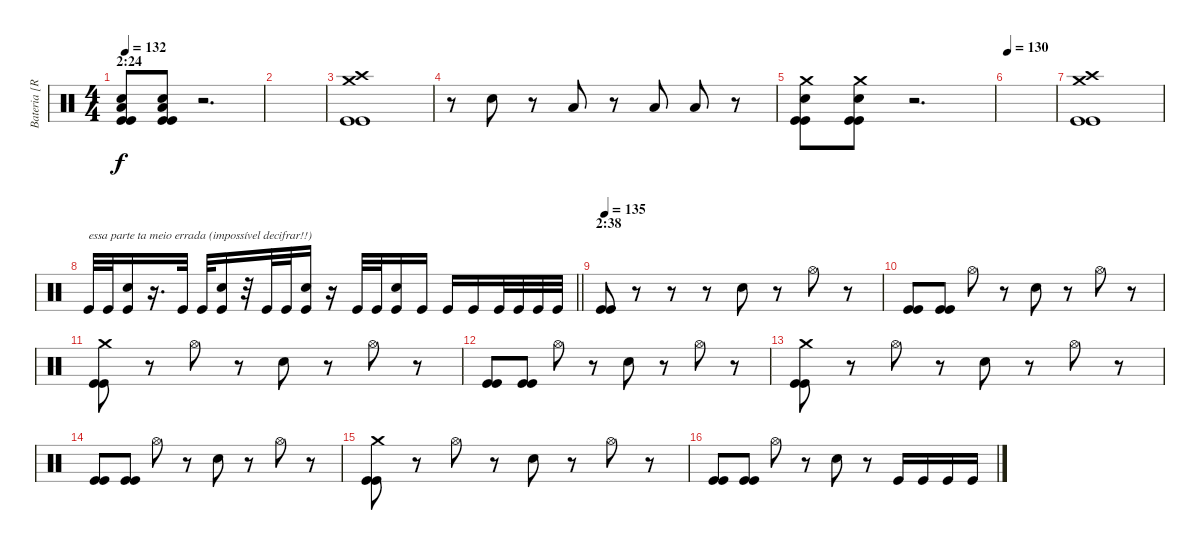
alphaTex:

\track ("Bateria [Ricardo Confessori]" "Bateria [R") {instrument percussion}
\staff {score}
\articulation defaults
\ts (4 4)
\section ("" "2:24")
\tempo 132
\clef neutral
\ks c
("Electric Snare (hit)" "Low Floor Tom (hit)" "Kick (hit)" "Kick (hit)").8{dy f} ("Electric Snare (hit)" "Low Floor Tom (hit)" "Kick (hit)" "Kick (hit)").8 r.2{d} |
|
("Crash medium (hit)" "Crash high (hit)" "Kick (hit)" "Kick (hit)").1 |
r.8 "Electric Snare (hit)".8 r.8 "Low Tom (hit)".8 r.8 "Low Floor Tom (hit)".8 "Low Floor Tom (hit)".8 r.8 |
("Crash medium (hit)" "Electric Snare (hit)" "Kick (hit)" "Kick (hit)").8 ("Crash medium (hit)" "Electric Snare (hit)" "Kick (hit)" "Kick (hit)").8 r.2{d} |
\tempo 130
|
("Crash medium (hit)" "Crash high (hit)" "Kick (hit)" "Kick (hit)").1 |
\barLineRight lightlight "Kick (hit)".32{txt "essa parte ta meio errada (impossível decifrar!!)"} "Kick (hit)".32
("Electric Snare (hit)" "Kick (hit)").16 r.16{d} "Kick (hit)".32 "Kick (hit)".32 ("Electric Snare (hit)" "Kick (hit)").16 r.32 "Kick (hit)".32 "Kick (hit)".32 ("Electric Snare (hit)" "Kick (hit)").16 r.16 "Kick (hit)".32 "Kick (hit)".32 ("Electric Snare (hit)" "Kick (hit)").16 "Kick (hit)".16 "Kick (hit)".16 "Kick (hit)".16 "Kick (hit)".32 "Kick (hit)".32 "Kick (hit)".32 "Kick (hit)".32 |
\section ("" "2:38")
\tempo 135
("Kick (hit)" "Kick (hit)").8 r.8 r.8 r.8 "Electric Snare (hit)".8 r.8 "Hi-Hat (open)".8 r.8 |
("Kick (hit)" "Kick (hit)").8 ("Kick (hit)" "Kick (hit)").8 "Hi-Hat (open)".8 r.8 "Electric Snare (hit)".8 r.8 "Hi-Hat (open)".8 r.8 |
("Crash medium (hit)" "Kick (hit)" "Kick (hit)").8 r.8 "Hi-Hat (open)".8 r.8 "Electric Snare (hit)".8 r.8 "Hi-Hat (open)".8 r.8 |
("Kick (hit)" "Kick (hit)").8 ("Kick (hit)" "Kick (hit)").8 "Hi-Hat (open)".8 r.8 "Electric Snare (hit)".8 r.8 "Hi-Hat (open)".8 r.8 |
("Crash medium (hit)" "Kick (hit)" "Kick (hit)").8 r.8 "Hi-Hat (open)".8 r.8 "Electric Snare (hit)".8 r.8 "Hi-Hat (open)".8 r.8 |
("Kick (hit)" "Kick (hit)").8 ("Kick (hit)" "Kick (hit)").8 "Hi-Hat (open)".8 r.8 "Electric Snare (hit)".8 r.8 "Hi-Hat (open)".8 r.8 |
("Crash medium (hit)" "Kick (hit)" "Kick (hit)").8 r.8 "Hi-Hat (open)".8 r.8 "Electric Snare (hit)".8 r.8 "Hi-Hat (open)".8 r.8 |
("Kick (hit)" "Kick (hit)").8 ("Kick (hit)" "Kick (hit)").8 "Hi-Hat (open)".8 r.8 "Electric Snare (hit)".8 r.8 "Kick (hit)".16 "Kick (hit)".16 "Kick (hit)".16 "Kick (hit)".16
